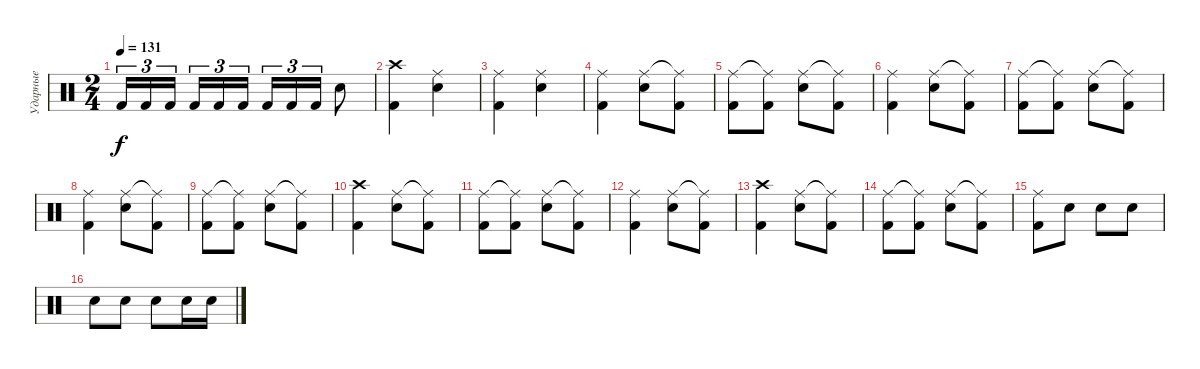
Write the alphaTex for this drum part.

\track ("Ударные" "Ударные") {instrument percussion}
\staff {score}
\articulation defaults
\ts (2 4)
\tempo 131
\clef neutral
\ks c "Kick (hit) 2".16{tu (3 2) dy f} "Kick (hit) 2".16{tu (3 2)} "Kick (hit) 2".16{tu (3 2) beam splitsecondary} "Kick (hit) 2".16{tu (3 2)} "Kick (hit) 2".16{tu (3 2)} "Kick (hit) 2".16{tu (3 2)} "Kick (hit) 2".16{tu (3 2)} "Kick (hit) 2".16{tu (3 2)} "Kick (hit) 2".16{tu (3 2)} "Electric Snare (hit)".8
|
("Crash high (hit)" "Kick (hit) 2").4 ("Ride (middle)" "Electric Snare (hit)").4 |
("Ride (middle)" "Kick (hit) 2").4 ("Ride (middle)" "Electric Snare (hit)").4 |
("Ride (middle)" "Kick (hit) 2").4 ("Ride (middle)" "Electric Snare (hit)").8 ("Ride (middle)"{t} "Kick (hit) 2").8 |
("Ride (middle)" "Kick (hit) 2").8 ("Ride (middle)"{t} "Kick (hit) 2").8 ("Ride (middle)" "Electric Snare (hit)").8 ("Ride (middle)"{t} "Kick (hit) 2").8 |
("Ride (middle)" "Kick (hit) 2").4 ("Ride (middle)" "Electric Snare (hit)").8 ("Ride (middle)"{t} "Kick (hit) 2").8 |
("Ride (middle)" "Kick (hit) 2").8 ("Ride (middle)"{t} "Kick (hit) 2").8 ("Ride (middle)" "Electric Snare (hit)").8 ("Ride (middle)"{t} "Kick (hit) 2").8 |
("Ride (middle)" "Kick (hit) 2").4 ("Ride (middle)" "Electric Snare (hit)").8 ("Ride (middle)"{t} "Kick (hit) 2").8 |
("Ride (middle)" "Kick (hit) 2").8 ("Ride (middle)"{t} "Kick (hit) 2").8 ("Ride (middle)" "Electric Snare (hit)").8 ("Ride (middle)"{t} "Kick (hit) 2").8 |
("Crash high (hit)" "Kick (hit) 2").4 ("Ride (middle)" "Electric Snare (hit)").8 ("Ride (middle)"{t} "Kick (hit) 2").8 |
("Ride (middle)" "Kick (hit) 2").8 ("Ride (middle)"{t} "Kick (hit) 2").8 ("Ride (middle)" "Electric Snare (hit)").8 ("Ride (middle)"{t} "Kick (hit) 2").8 |
("Ride (middle)" "Kick (hit) 2").4 ("Ride (middle)" "Electric Snare (hit)").8 ("Ride (middle)"{t} "Kick (hit) 2").8 |
("Crash high (hit)" "Kick (hit) 2").4 ("Ride (middle)" "Electric Snare (hit)").8 ("Ride (middle)"{t} "Kick (hit) 2").8 |
("Ride (middle)" "Kick (hit) 2").8 ("Ride (middle)"{t} "Kick (hit) 2").8 ("Ride (middle)" "Electric Snare (hit)").8 ("Ride (middle)"{t} "Kick (hit) 2").8 |
("Ride (middle)" "Kick (hit) 2").8 "Electric Snare (hit)".8 "Electric Snare (hit)".8 "Electric Snare (hit)".8 |
"Electric Snare (hit)".8 "Electric Snare (hit)".8 "Electric Snare (hit)".8 "Electric Snare (hit)".16 "Electric Snare (hit)".16
